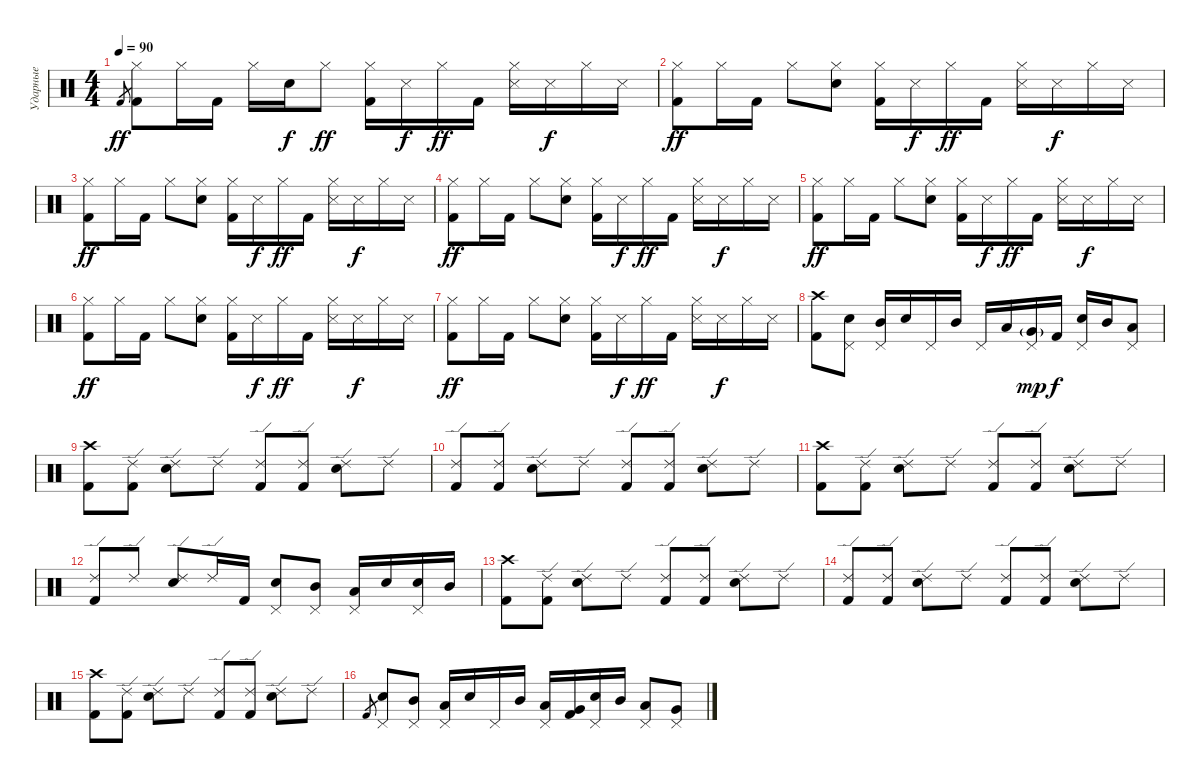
\track ("Ударные" "Ударные") {instrument percussion}
\staff {score}
\articulation defaults
\ts (4 4)
\tempo 90
\clef neutral
\ks c "Kick (hit) 2".8{gr dy ff}
("Hi-Hat (closed)" "Kick (hit) 2").8 "Hi-Hat (closed)".16 "Kick (hit) 2".16 "Hi-Hat (closed)".16 "Electric Snare (hit)".16{dy f} "Hi-Hat (closed)".8{dy ff} ("Hi-Hat (closed)" "Kick (hit) 2").16 "Snare (side stick) 3".16{dy f} "Hi-Hat (closed)".16{dy ff} "Kick (hit) 2".16 ("Hi-Hat (closed)" "Snare (side stick) 3").16 "Snare (side stick) 3".16{dy f} "Hi-Hat (closed)".16 "Snare (side stick) 3".16 |
("Hi-Hat (closed)" "Kick (hit) 2").8{dy ff} "Hi-Hat (closed)".16 "Kick (hit) 2".16 "Hi-Hat (closed)".8 ("Hi-Hat (closed)" "Electric Snare (hit)").8 ("Hi-Hat (closed)" "Kick (hit) 2").16 "Snare (side stick) 3".16{dy f} "Hi-Hat (closed)".16{dy ff} "Kick (hit) 2".16 ("Hi-Hat (closed)" "Snare (side stick) 3").16 "Snare (side stick) 3".16{dy f} "Hi-Hat (closed)".16 "Snare (side stick) 3".16 |
("Hi-Hat (closed)" "Kick (hit) 2").8{dy ff} "Hi-Hat (closed)".16 "Kick (hit) 2".16 "Hi-Hat (closed)".8 ("Hi-Hat (closed)" "Electric Snare (hit)").8 ("Hi-Hat (closed)" "Kick (hit) 2").16 "Snare (side stick) 3".16{dy f} "Hi-Hat (closed)".16{dy ff} "Kick (hit) 2".16 ("Hi-Hat (closed)" "Snare (side stick) 3").16 "Snare (side stick) 3".16{dy f} "Hi-Hat (closed)".16 "Snare (side stick) 3".16 |
("Hi-Hat (closed)" "Kick (hit) 2").8{dy ff} "Hi-Hat (closed)".16 "Kick (hit) 2".16 "Hi-Hat (closed)".8 ("Hi-Hat (closed)" "Electric Snare (hit)").8 ("Hi-Hat (closed)" "Kick (hit) 2").16 "Snare (side stick) 3".16{dy f} "Hi-Hat (closed)".16{dy ff} "Kick (hit) 2".16 ("Hi-Hat (closed)" "Snare (side stick) 3").16 "Snare (side stick) 3".16{dy f} "Hi-Hat (closed)".16 "Snare (side stick) 3".16 |
("Hi-Hat (closed)" "Kick (hit) 2").8{dy ff} "Hi-Hat (closed)".16 "Kick (hit) 2".16 "Hi-Hat (closed)".8 ("Hi-Hat (closed)" "Electric Snare (hit)").8 ("Hi-Hat (closed)" "Kick (hit) 2").16 "Snare (side stick) 3".16{dy f} "Hi-Hat (closed)".16{dy ff} "Kick (hit) 2".16 ("Hi-Hat (closed)" "Snare (side stick) 3").16 "Snare (side stick) 3".16{dy f} "Hi-Hat (closed)".16 "Snare (side stick) 3".16 |
("Hi-Hat (closed)" "Kick (hit) 2").8{dy ff} "Hi-Hat (closed)".16 "Kick (hit) 2".16 "Hi-Hat (closed)".8 ("Hi-Hat (closed)" "Electric Snare (hit)").8 ("Hi-Hat (closed)" "Kick (hit) 2").16 "Snare (side stick) 3".16{dy f} "Hi-Hat (closed)".16{dy ff} "Kick (hit) 2".16 ("Hi-Hat (closed)" "Snare (side stick) 3").16 "Snare (side stick) 3".16{dy f} "Hi-Hat (closed)".16 "Snare (side stick) 3".16 |
("Hi-Hat (closed)" "Kick (hit) 2").8{dy ff} "Hi-Hat (closed)".16 "Kick (hit) 2".16 "Hi-Hat (closed)".8 ("Hi-Hat (closed)" "Electric Snare (hit)").8 ("Hi-Hat (closed)" "Kick (hit) 2").16 "Snare (side stick) 3".16{dy f} "Hi-Hat (closed)".16{dy ff} "Kick (hit) 2".16 ("Hi-Hat (closed)" "Snare (side stick) 3").16 "Snare (side stick) 3".16{dy f} "Hi-Hat (closed)".16 "Snare (side stick) 3".16 |
("Crash high (hit)" "Kick (hit) 2").8 ("Pedal Hi-Hat (hit)" "Electric Snare (hit)").8 ("Pedal Hi-Hat (hit)" "Mid Tom (hit)").16 "Electric Snare (hit)".16 "Pedal Hi-Hat (hit)".16 "Mid Tom (hit)".16 "Pedal Hi-Hat (hit)".16 "Low Tom (hit)".16 ("Pedal Hi-Hat (hit)" "Very Low Tom (hit)"{g}).16{dy mp} "Kick (hit) 2".16{dy f} ("Pedal Hi-Hat (hit)" "Electric Snare (hit)").16 "Mid Tom (hit)".16 ("Pedal Hi-Hat (hit)" "Low Tom (hit)").8 |
("Kick (hit) 2" "Crash high (hit)").8 ("Kick (hit) 2" "Ride (edge) 2").8 ("Electric Snare (hit)" "Ride (edge) 2").8 "Ride (edge) 2".8 ("Kick (hit) 2" "Ride (edge) 2").8 ("Kick (hit) 2" "Ride (edge) 2").8 ("Electric Snare (hit)" "Ride (edge) 2").8 "Ride (edge) 2".8 |
("Kick (hit) 2" "Ride (edge) 2").8 ("Kick (hit) 2" "Ride (edge) 2").8 ("Electric Snare (hit)" "Ride (edge) 2").8 "Ride (edge) 2".8 ("Kick (hit) 2" "Ride (edge) 2").8 ("Kick (hit) 2" "Ride (edge) 2").8 ("Electric Snare (hit)" "Ride (edge) 2").8 "Ride (edge) 2".8 |
("Kick (hit) 2" "Crash high (hit)").8 ("Kick (hit) 2" "Ride (edge) 2").8 ("Electric Snare (hit)" "Ride (edge) 2").8 "Ride (edge) 2".8 ("Kick (hit) 2" "Ride (edge) 2").8 ("Kick (hit) 2" "Ride (edge) 2").8 ("Electric Snare (hit)" "Ride (edge) 2").8 "Ride (edge) 2".8 |
("Kick (hit) 2" "Ride (edge) 2").8 "Ride (edge) 2".8 ("Electric Snare (hit)" "Ride (edge) 2").8 "Ride (edge) 2".16 "Kick (hit) 2".16 ("Electric Snare (hit)" "Pedal Hi-Hat (hit)").8 ("Mid Tom (hit)" "Pedal Hi-Hat (hit)").8 ("Low Tom (hit)" "Pedal Hi-Hat (hit)").16 "Electric Snare (hit)".16 ("Electric Snare (hit)" "Pedal Hi-Hat (hit)").16 "Mid Tom (hit)".16 |
("Kick (hit) 2" "Crash high (hit)").8 ("Kick (hit) 2" "Ride (edge) 2").8 ("Electric Snare (hit)" "Ride (edge) 2").8 "Ride (edge) 2".8 ("Kick (hit) 2" "Ride (edge) 2").8 ("Kick (hit) 2" "Ride (edge) 2").8 ("Electric Snare (hit)" "Ride (edge) 2").8 "Ride (edge) 2".8 |
("Kick (hit) 2" "Ride (edge) 2").8 ("Kick (hit) 2" "Ride (edge) 2").8 ("Electric Snare (hit)" "Ride (edge) 2").8 "Ride (edge) 2".8 ("Kick (hit) 2" "Ride (edge) 2").8 ("Kick (hit) 2" "Ride (edge) 2").8 ("Electric Snare (hit)" "Ride (edge) 2").8 "Ride (edge) 2".8 |
("Kick (hit) 2" "Crash high (hit)").8 ("Kick (hit) 2" "Ride (edge) 2").8 ("Electric Snare (hit)" "Ride (edge) 2").8 "Ride (edge) 2".8 ("Kick (hit) 2" "Ride (edge) 2").8 ("Kick (hit) 2" "Ride (edge) 2").8 ("Electric Snare (hit)" "Ride (edge) 2").8 "Ride (edge) 2".8 |
"Kick (hit) 2".8{gr} ("Pedal Hi-Hat (hit)" "Electric Snare (hit)").8 ("Pedal Hi-Hat (hit)" "Mid Tom (hit)").8 ("Pedal Hi-Hat (hit)" "Low Tom (hit)").16 "Electric Snare (hit)".16 "Pedal Hi-Hat (hit)".16 "Mid Tom (hit)".16 ("Pedal Hi-Hat (hit)" "Low Tom (hit)").16 ("Very Low Tom (hit)" "Kick (hit) 2").16 ("Pedal Hi-Hat (hit)" "Electric Snare (hit)").16 "Mid Tom (hit)".16 ("Pedal Hi-Hat (hit)" "Low Tom (hit)").8 ("Pedal Hi-Hat (hit)" "Very Low Tom (hit)").8
